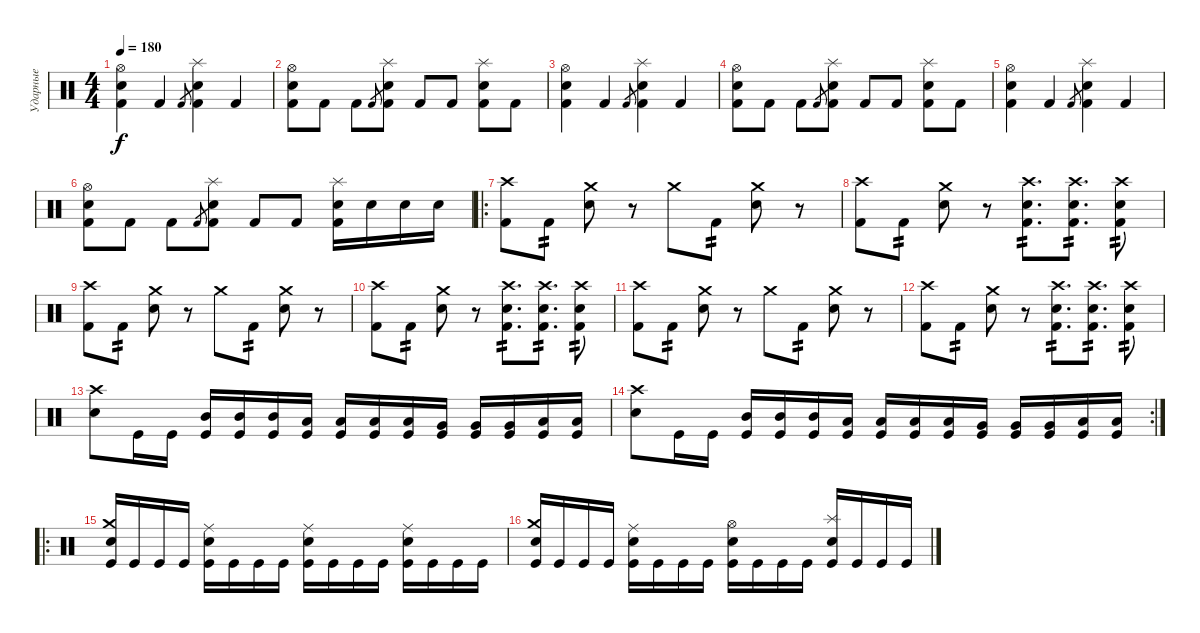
\track ("Ударные" "Ударные") {instrument percussion}
\staff {score}
\articulation defaults
\ts (4 4)
\tempo 180
\clef neutral
\ks c
("Hi-Hat (open)" "Electric Snare (hit)" "Kick (hit) 2").4{dy f} "Kick (hit) 2".4 "Kick (hit) 2".8{gr} ("Splash (hit)" "Electric Snare (hit)" "Kick (hit) 2").4 "Kick (hit) 2".4 |
("Hi-Hat (open)" "Electric Snare (hit)" "Kick (hit) 2").8 "Kick (hit) 2".8 "Kick (hit) 2".8 "Kick (hit) 2".8{gr} ("Splash (hit)" "Electric Snare (hit)" "Kick (hit) 2").8 "Kick (hit) 2".8 "Kick (hit) 2".8 ("Splash (hit)" "Electric Snare (hit)" "Kick (hit) 2").8 "Kick (hit) 2".8 |
("Hi-Hat (open)" "Electric Snare (hit)" "Kick (hit) 2").4 "Kick (hit) 2".4 "Kick (hit) 2".8{gr} ("Splash (hit)" "Electric Snare (hit)" "Kick (hit) 2").4 "Kick (hit) 2".4 |
("Hi-Hat (open)" "Electric Snare (hit)" "Kick (hit) 2").8 "Kick (hit) 2".8 "Kick (hit) 2".8 "Kick (hit) 2".8{gr} ("Splash (hit)" "Electric Snare (hit)" "Kick (hit) 2").8 "Kick (hit) 2".8 "Kick (hit) 2".8 ("Splash (hit)" "Electric Snare (hit)" "Kick (hit) 2").8 "Kick (hit) 2".8 |
("Hi-Hat (open)" "Electric Snare (hit)" "Kick (hit) 2").4 "Kick (hit) 2".4 "Kick (hit) 2".8{gr} ("Splash (hit)" "Electric Snare (hit)" "Kick (hit) 2").4 "Kick (hit) 2".4 |
("Hi-Hat (open)" "Electric Snare (hit)" "Kick (hit) 2").8 "Kick (hit) 2".8 "Kick (hit) 2".8 "Kick (hit) 2".8{gr} ("Splash (hit)" "Electric Snare (hit)" "Kick (hit) 2").8 "Kick (hit) 2".8 "Kick (hit) 2".8 ("Splash (hit)" "Electric Snare (hit)" "Kick (hit) 2").16 "Electric Snare (hit)".16 "Electric Snare (hit)".16 "Electric Snare (hit)".16 |
\ro
("Crash high (hit)" "Kick (hit) 2").8 "Kick (hit) 2".8{tp 2} ("Crash medium (hit)" "Electric Snare (hit)").8 r.8 "Crash medium (hit)".8 "Kick (hit) 2".8{tp 2} ("Crash medium (hit)" "Electric Snare (hit)").8 r.8 |
("Crash high (hit)" "Kick (hit) 2").8 "Kick (hit) 2".8{tp 2} ("Crash medium (hit)" "Electric Snare (hit)").8 r.8 ("Crash high (hit)" "Electric Snare (hit)" "Kick (hit) 2").8{d tp 2} ("Crash high (hit)" "Electric Snare (hit)" "Kick (hit) 2").8{d tp 2} ("Crash high (hit)" "Electric Snare (hit)" "Kick (hit) 2").8{tp 2} |
("Crash high (hit)" "Kick (hit) 2").8 "Kick (hit) 2".8{tp 2} ("Crash medium (hit)" "Electric Snare (hit)").8 r.8 "Crash medium (hit)".8 "Kick (hit) 2".8{tp 2} ("Crash medium (hit)" "Electric Snare (hit)").8 r.8 |
("Crash high (hit)" "Kick (hit) 2").8 "Kick (hit) 2".8{tp 2} ("Crash medium (hit)" "Electric Snare (hit)").8 r.8 ("Crash high (hit)" "Electric Snare (hit)" "Kick (hit) 2").8{d tp 2} ("Crash high (hit)" "Electric Snare (hit)" "Kick (hit) 2").8{d tp 2} ("Crash high (hit)" "Electric Snare (hit)" "Kick (hit) 2").8{tp 2} |
("Crash high (hit)" "Kick (hit) 2").8 "Kick (hit) 2".8{tp 2} ("Crash medium (hit)" "Electric Snare (hit)").8 r.8 "Crash medium (hit)".8 "Kick (hit) 2".8{tp 2} ("Crash medium (hit)" "Electric Snare (hit)").8 r.8 |
("Crash high (hit)" "Kick (hit) 2").8 "Kick (hit) 2".8{tp 2} ("Crash medium (hit)" "Electric Snare (hit)").8 r.8 ("Crash high (hit)" "Electric Snare (hit)" "Kick (hit) 2").8{d tp 2} ("Crash high (hit)" "Electric Snare (hit)" "Kick (hit) 2").8{d tp 2} ("Crash high (hit)" "Electric Snare (hit)" "Kick (hit) 2").8{tp 2} |
("Crash high (hit)" "Electric Snare (hit)").8 "Kick (hit)".16 "Kick (hit)".16 ("Mid Tom (hit)" "Kick (hit)").16 ("Mid Tom (hit)" "Kick (hit)").16 ("Mid Tom (hit)" "Kick (hit)").16 ("Low Tom (hit)" "Kick (hit)").16 ("Low Tom (hit)" "Kick (hit)").16 ("Low Tom (hit)" "Kick (hit)").16 ("Low Tom (hit)" "Kick (hit)").16 ("Very Low Tom (hit)" "Kick (hit)").16 ("Very Low Tom (hit)" "Kick (hit)").16 ("Very Low Tom (hit)" "Kick (hit)").16 ("Low Floor Tom (hit)" "Kick (hit)").16 ("Low Floor Tom (hit)" "Kick (hit)").16 |
\rc 2
("Crash high (hit)" "Electric Snare (hit)").8 "Kick (hit)".16 "Kick (hit)".16 ("Mid Tom (hit)" "Kick (hit)").16 ("Mid Tom (hit)" "Kick (hit)").16 ("Mid Tom (hit)" "Kick (hit)").16 ("Low Tom (hit)" "Kick (hit)").16 ("Low Tom (hit)" "Kick (hit)").16 ("Low Tom (hit)" "Kick (hit)").16 ("Low Tom (hit)" "Kick (hit)").16 ("Very Low Tom (hit)" "Kick (hit)").16 ("Very Low Tom (hit)" "Kick (hit)").16 ("Very Low Tom (hit)" "Kick (hit)").16 ("Low Floor Tom (hit)" "Kick (hit)").16 ("Low Floor Tom (hit)" "Kick (hit)").16 |
\ro
("Crash medium (hit)" "Electric Snare (hit)" "Kick (hit)").16 "Kick (hit)".16 "Kick (hit)".16 "Kick (hit)".16 ("Ride (middle)" "Electric Snare (hit)" "Kick (hit)").16 "Kick (hit)".16 "Kick (hit)".16 "Kick (hit)".16 ("Ride (middle)" "Electric Snare (hit)" "Kick (hit)").16 "Kick (hit)".16 "Kick (hit)".16 "Kick (hit)".16 ("Ride (middle)" "Electric Snare (hit)" "Kick (hit)").16 "Kick (hit)".16 "Kick (hit)".16 "Kick (hit)".16 |
("Crash medium (hit)" "Electric Snare (hit)" "Kick (hit)").16 "Kick (hit)".16 "Kick (hit)".16 "Kick (hit)".16 ("Ride (middle)" "Electric Snare (hit)" "Kick (hit)").16 "Kick (hit)".16 "Kick (hit)".16 "Kick (hit)".16 ("Hi-Hat (open)" "Electric Snare (hit)" "Kick (hit)").16 "Kick (hit)".16 "Kick (hit)".16 "Kick (hit)".16 ("Splash (hit)" "Electric Snare (hit)" "Kick (hit)").16 "Kick (hit)".16 "Kick (hit)".16 "Kick (hit)".16
